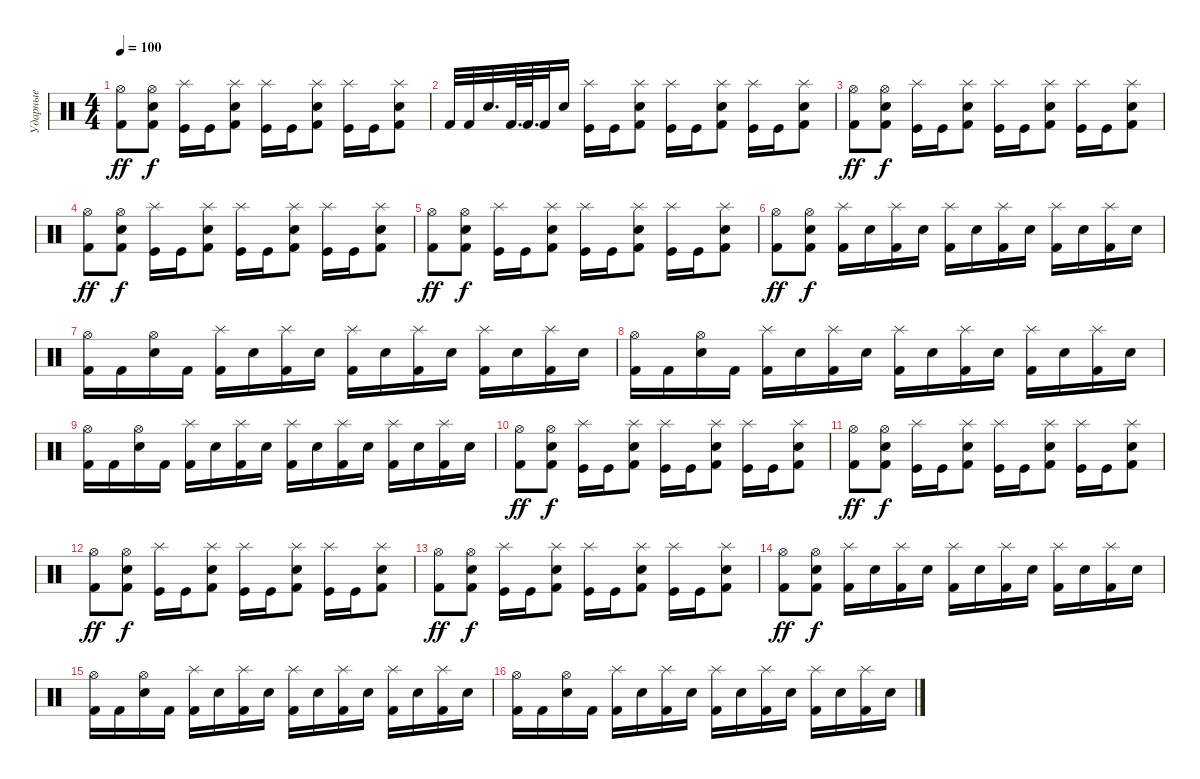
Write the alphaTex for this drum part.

\track ("Ударные" "Ударные") {instrument percussion}
\staff {score}
\articulation defaults
\ts (4 4)
\tempo 100
\clef neutral
\ks c
("Hi-Hat (open)" "Kick (hit) 2").8{dy ff} ("Hi-Hat (open)" "Electric Snare (hit)" "Kick (hit) 2").8{dy f} ("Splash (hit)" "Kick (hit)").16 "Kick (hit)".16 ("Splash (hit)" "Electric Snare (hit)" "Kick (hit) 2").8 ("Splash (hit)" "Kick (hit)").16 "Kick (hit)".16 ("Splash (hit)" "Electric Snare (hit)" "Kick (hit) 2").8 ("Splash (hit)" "Kick (hit)").16 "Kick (hit)".16 ("Splash (hit)" "Electric Snare (hit)" "Kick (hit) 2").8 |
"Kick (hit) 2".32 "Kick (hit) 2".32 "Electric Snare (hit)".32{d} "Kick (hit) 2".64{d} "Kick (hit) 2".64{d} "Kick (hit) 2".32 "Electric Snare (hit)".16 ("Splash (hit)" "Kick (hit)").16 "Kick (hit)".16 ("Splash (hit)" "Electric Snare (hit)" "Kick (hit) 2").8 ("Splash (hit)" "Kick (hit)").16 "Kick (hit)".16 ("Splash (hit)" "Electric Snare (hit)" "Kick (hit) 2").8 ("Splash (hit)" "Kick (hit)").16 "Kick (hit)".16 ("Splash (hit)" "Electric Snare (hit)" "Kick (hit) 2").8 |
("Hi-Hat (open)" "Kick (hit) 2").8{dy ff} ("Hi-Hat (open)" "Electric Snare (hit)" "Kick (hit) 2").8{dy f} ("Splash (hit)" "Kick (hit)").16 "Kick (hit)".16 ("Splash (hit)" "Electric Snare (hit)" "Kick (hit) 2").8 ("Splash (hit)" "Kick (hit)").16 "Kick (hit)".16 ("Splash (hit)" "Electric Snare (hit)" "Kick (hit) 2").8 ("Splash (hit)" "Kick (hit)").16 "Kick (hit)".16 ("Splash (hit)" "Electric Snare (hit)" "Kick (hit) 2").8 |
("Hi-Hat (open)" "Kick (hit) 2").8{dy ff} ("Hi-Hat (open)" "Electric Snare (hit)" "Kick (hit) 2").8{dy f} ("Splash (hit)" "Kick (hit)").16 "Kick (hit)".16 ("Splash (hit)" "Electric Snare (hit)" "Kick (hit) 2").8 ("Splash (hit)" "Kick (hit)").16 "Kick (hit)".16 ("Splash (hit)" "Electric Snare (hit)" "Kick (hit) 2").8 ("Splash (hit)" "Kick (hit)").16 "Kick (hit)".16 ("Splash (hit)" "Electric Snare (hit)" "Kick (hit) 2").8 |
("Hi-Hat (open)" "Kick (hit) 2").8{dy ff} ("Hi-Hat (open)" "Electric Snare (hit)" "Kick (hit) 2").8{dy f} ("Splash (hit)" "Kick (hit)").16 "Kick (hit)".16 ("Splash (hit)" "Electric Snare (hit)" "Kick (hit) 2").8 ("Splash (hit)" "Kick (hit)").16 "Kick (hit)".16 ("Splash (hit)" "Electric Snare (hit)" "Kick (hit) 2").8 ("Splash (hit)" "Kick (hit)").16 "Kick (hit)".16 ("Splash (hit)" "Electric Snare (hit)" "Kick (hit) 2").8 |
("Hi-Hat (open)" "Kick (hit) 2").8{dy ff} ("Hi-Hat (open)" "Electric Snare (hit)" "Kick (hit) 2").8{dy f} ("Splash (hit)" "Kick (hit) 2").16 "Electric Snare (hit)".16 ("Splash (hit)" "Kick (hit) 2").16 "Electric Snare (hit)".16 ("Splash (hit)" "Kick (hit) 2").16 "Electric Snare (hit)".16 ("Splash (hit)" "Kick (hit) 2").16 "Electric Snare (hit)".16 ("Splash (hit)" "Kick (hit) 2").16 "Electric Snare (hit)".16 ("Splash (hit)" "Kick (hit) 2").16 "Electric Snare (hit)".16 |
("Hi-Hat (open)" "Kick (hit) 2").16 "Kick (hit) 2".16 ("Hi-Hat (open)" "Electric Snare (hit)").16 "Kick (hit) 2".16 ("Splash (hit)" "Kick (hit) 2").16 "Electric Snare (hit)".16 ("Splash (hit)" "Kick (hit) 2").16 "Electric Snare (hit)".16 ("Splash (hit)" "Kick (hit) 2").16 "Electric Snare (hit)".16 ("Splash (hit)" "Kick (hit) 2").16 "Electric Snare (hit)".16 ("Splash (hit)" "Kick (hit) 2").16 "Electric Snare (hit)".16 ("Splash (hit)" "Kick (hit) 2").16 "Electric Snare (hit)".16 |
("Hi-Hat (open)" "Kick (hit) 2").16 "Kick (hit) 2".16 ("Hi-Hat (open)" "Electric Snare (hit)").16 "Kick (hit) 2".16 ("Splash (hit)" "Kick (hit) 2").16 "Electric Snare (hit)".16 ("Splash (hit)" "Kick (hit) 2").16 "Electric Snare (hit)".16 ("Splash (hit)" "Kick (hit) 2").16 "Electric Snare (hit)".16 ("Splash (hit)" "Kick (hit) 2").16 "Electric Snare (hit)".16 ("Splash (hit)" "Kick (hit) 2").16 "Electric Snare (hit)".16 ("Splash (hit)" "Kick (hit) 2").16 "Electric Snare (hit)".16 |
("Hi-Hat (open)" "Kick (hit) 2").16 "Kick (hit) 2".16 ("Hi-Hat (open)" "Electric Snare (hit)").16 "Kick (hit) 2".16 ("Splash (hit)" "Kick (hit) 2").16 "Electric Snare (hit)".16 ("Splash (hit)" "Kick (hit) 2").16 "Electric Snare (hit)".16 ("Splash (hit)" "Kick (hit) 2").16 "Electric Snare (hit)".16 ("Splash (hit)" "Kick (hit) 2").16 "Electric Snare (hit)".16 ("Splash (hit)" "Kick (hit) 2").16 "Electric Snare (hit)".16 ("Splash (hit)" "Kick (hit) 2").16 "Electric Snare (hit)".16 |
("Hi-Hat (open)" "Kick (hit) 2").8{dy ff} ("Hi-Hat (open)" "Electric Snare (hit)" "Kick (hit) 2").8{dy f} ("Splash (hit)" "Kick (hit)").16 "Kick (hit)".16 ("Splash (hit)" "Electric Snare (hit)" "Kick (hit) 2").8 ("Splash (hit)" "Kick (hit)").16 "Kick (hit)".16 ("Splash (hit)" "Electric Snare (hit)" "Kick (hit) 2").8 ("Splash (hit)" "Kick (hit)").16 "Kick (hit)".16 ("Splash (hit)" "Electric Snare (hit)" "Kick (hit) 2").8 |
("Hi-Hat (open)" "Kick (hit) 2").8{dy ff} ("Hi-Hat (open)" "Electric Snare (hit)" "Kick (hit) 2").8{dy f} ("Splash (hit)" "Kick (hit)").16 "Kick (hit)".16 ("Splash (hit)" "Electric Snare (hit)" "Kick (hit) 2").8 ("Splash (hit)" "Kick (hit)").16 "Kick (hit)".16 ("Splash (hit)" "Electric Snare (hit)" "Kick (hit) 2").8 ("Splash (hit)" "Kick (hit)").16 "Kick (hit)".16 ("Splash (hit)" "Electric Snare (hit)" "Kick (hit) 2").8 |
("Hi-Hat (open)" "Kick (hit) 2").8{dy ff} ("Hi-Hat (open)" "Electric Snare (hit)" "Kick (hit) 2").8{dy f} ("Splash (hit)" "Kick (hit)").16 "Kick (hit)".16 ("Splash (hit)" "Electric Snare (hit)" "Kick (hit) 2").8 ("Splash (hit)" "Kick (hit)").16 "Kick (hit)".16 ("Splash (hit)" "Electric Snare (hit)" "Kick (hit) 2").8 ("Splash (hit)" "Kick (hit)").16 "Kick (hit)".16 ("Splash (hit)" "Electric Snare (hit)" "Kick (hit) 2").8 |
("Hi-Hat (open)" "Kick (hit) 2").8{dy ff} ("Hi-Hat (open)" "Electric Snare (hit)" "Kick (hit) 2").8{dy f} ("Splash (hit)" "Kick (hit)").16 "Kick (hit)".16 ("Splash (hit)" "Electric Snare (hit)" "Kick (hit) 2").8 ("Splash (hit)" "Kick (hit)").16 "Kick (hit)".16 ("Splash (hit)" "Electric Snare (hit)" "Kick (hit) 2").8 ("Splash (hit)" "Kick (hit)").16 "Kick (hit)".16 ("Splash (hit)" "Electric Snare (hit)" "Kick (hit) 2").8 |
("Hi-Hat (open)" "Kick (hit) 2").8{dy ff} ("Hi-Hat (open)" "Electric Snare (hit)" "Kick (hit) 2").8{dy f} ("Splash (hit)" "Kick (hit) 2").16 "Electric Snare (hit)".16 ("Splash (hit)" "Kick (hit) 2").16 "Electric Snare (hit)".16 ("Splash (hit)" "Kick (hit) 2").16 "Electric Snare (hit)".16 ("Splash (hit)" "Kick (hit) 2").16 "Electric Snare (hit)".16 ("Splash (hit)" "Kick (hit) 2").16 "Electric Snare (hit)".16 ("Splash (hit)" "Kick (hit) 2").16 "Electric Snare (hit)".16 |
("Hi-Hat (open)" "Kick (hit) 2").16 "Kick (hit) 2".16 ("Hi-Hat (open)" "Electric Snare (hit)").16 "Kick (hit) 2".16 ("Splash (hit)" "Kick (hit) 2").16 "Electric Snare (hit)".16 ("Splash (hit)" "Kick (hit) 2").16 "Electric Snare (hit)".16 ("Splash (hit)" "Kick (hit) 2").16 "Electric Snare (hit)".16 ("Splash (hit)" "Kick (hit) 2").16 "Electric Snare (hit)".16 ("Splash (hit)" "Kick (hit) 2").16 "Electric Snare (hit)".16 ("Splash (hit)" "Kick (hit) 2").16 "Electric Snare (hit)".16 |
("Hi-Hat (open)" "Kick (hit) 2").16 "Kick (hit) 2".16 ("Hi-Hat (open)" "Electric Snare (hit)").16 "Kick (hit) 2".16 ("Splash (hit)" "Kick (hit) 2").16 "Electric Snare (hit)".16 ("Splash (hit)" "Kick (hit) 2").16 "Electric Snare (hit)".16 ("Splash (hit)" "Kick (hit) 2").16 "Electric Snare (hit)".16 ("Splash (hit)" "Kick (hit) 2").16 "Electric Snare (hit)".16 ("Splash (hit)" "Kick (hit) 2").16 "Electric Snare (hit)".16 ("Splash (hit)" "Kick (hit) 2").16 "Electric Snare (hit)".16
